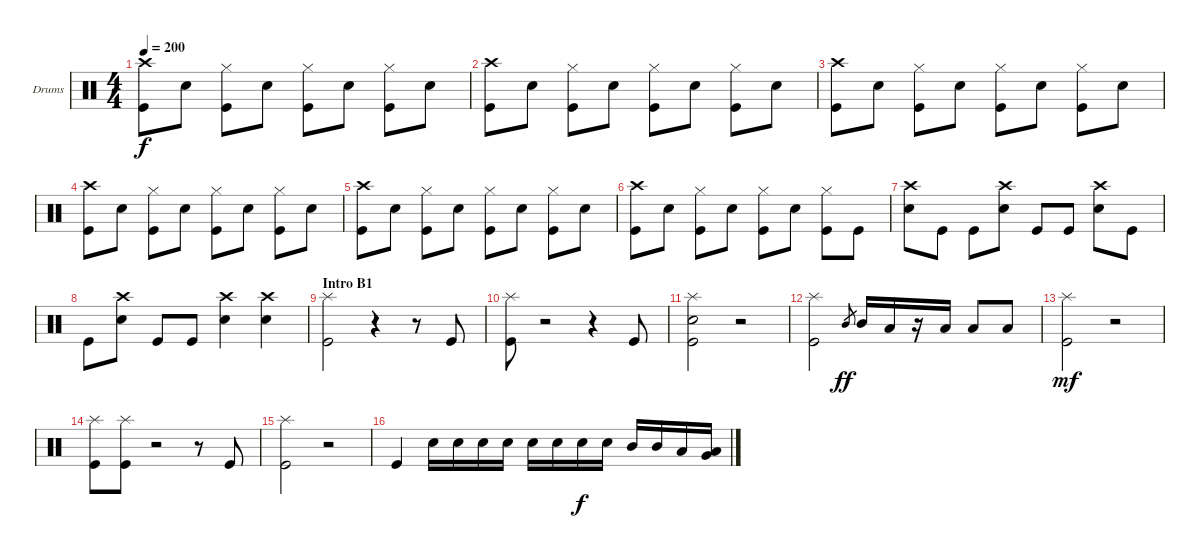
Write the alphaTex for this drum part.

\defaultSystemsLayout 4
\bracketExtendMode groupsimilarinstruments
\firstSystemTrackNameOrientation horizontal
\otherSystemsTrackNameOrientation horizontal
\track ("Drums" "Drums") {instrument percussion}
\staff {score}
\articulation defaults
\ts (4 4)
\tempo 200
\clef neutral
\ks c
("Kick (hit)" "Crash high (hit)").8{dy f} "Snare (hit) 2".8 ("Hi-Hat (closed)" "Kick (hit)").8 "Snare (hit) 2".8 ("Hi-Hat (closed)" "Kick (hit)").8 "Snare (hit) 2".8 ("Hi-Hat (closed)" "Kick (hit)").8 "Snare (hit) 2".8 |
("Kick (hit)" "Crash high (hit)").8 "Snare (hit) 2".8 ("Hi-Hat (closed)" "Kick (hit)").8 "Snare (hit) 2".8 ("Hi-Hat (closed)" "Kick (hit)").8 "Snare (hit) 2".8 ("Hi-Hat (closed)" "Kick (hit)").8 "Snare (hit) 2".8 |
("Kick (hit)" "Crash high (hit)").8 "Snare (hit) 2".8 ("Hi-Hat (closed)" "Kick (hit)").8 "Snare (hit) 2".8 ("Hi-Hat (closed)" "Kick (hit)").8 "Snare (hit) 2".8 ("Hi-Hat (closed)" "Kick (hit)").8 "Snare (hit) 2".8 |
("Kick (hit)" "Crash high (hit)").8 "Snare (hit) 2".8 ("Hi-Hat (closed)" "Kick (hit)").8 "Snare (hit) 2".8 ("Hi-Hat (closed)" "Kick (hit)").8 "Snare (hit) 2".8 ("Hi-Hat (closed)" "Kick (hit)").8 "Snare (hit) 2".8 |
("Kick (hit)" "Crash high (hit)").8 "Snare (hit) 2".8 ("Hi-Hat (closed)" "Kick (hit)").8 "Snare (hit) 2".8 ("Hi-Hat (closed)" "Kick (hit)").8 "Snare (hit) 2".8 ("Hi-Hat (closed)" "Kick (hit)").8 "Snare (hit) 2".8 |
("Kick (hit)" "Crash high (hit)").8 "Snare (hit) 2".8 ("Hi-Hat (closed)" "Kick (hit)").8 "Snare (hit) 2".8 ("Hi-Hat (closed)" "Kick (hit)").8 "Snare (hit) 2".8 ("Hi-Hat (closed)" "Kick (hit)").8 "Kick (hit)".8 |
("Snare (hit) 2" "Crash high (hit)").8 "Kick (hit)".8 "Kick (hit)".8 ("Snare (hit) 2" "Crash high (hit)").8 "Kick (hit)".8 "Kick (hit)".8 ("Snare (hit) 2" "Crash high (hit)").8 "Kick (hit)".8 |
"Kick (hit)".8 ("Snare (hit) 2" "Crash high (hit)").8 "Kick (hit)".8 "Kick (hit)".8 ("Snare (hit) 2" "Crash high (hit)").4 ("Snare (hit) 2" "Crash high (hit)").4 |
\section ("" "Intro B1")
("Kick (hit)" "Splash (hit)").2 r.4 r.8 "Kick (hit)".8 |
("Kick (hit)" "Splash (hit)").8 r.2 r.4 "Kick (hit)".8 |
("Splash (hit)" "Snare (hit) 2" "Kick (hit)").2 r.2 |
("Kick (hit)" "Splash (hit)").2 "Mid Tom (hit)".8{gr dy ff} "Mid Tom (hit)".16 "Low Tom (hit)".16 r.16 "Low Tom (hit)".16 "Low Tom (hit)".8 "Low Tom (hit)".8 |
("Kick (hit)" "Splash (hit)").2{dy mf} r.2 |
("Kick (hit)" "Splash (hit)").8 ("Kick (hit)" "Splash (hit)").8 r.2 r.8 "Kick (hit)".8 |
("Kick (hit)" "Splash (hit)").2 r.2 |
"Kick (hit)".4 "Snare (hit) 2".16 "Snare (hit) 2".16 "Snare (hit) 2".16 "Snare (hit) 2".16 "Snare (hit) 2".16 "Snare (hit) 2".16 "Snare (hit) 2".16{dy f} "Snare (hit) 2".16 "Mid Tom (hit)".16 "Mid Tom (hit)".16 "Low Tom (hit)".16 ("Very Low Tom (hit)" "Low Tom (hit)").16
